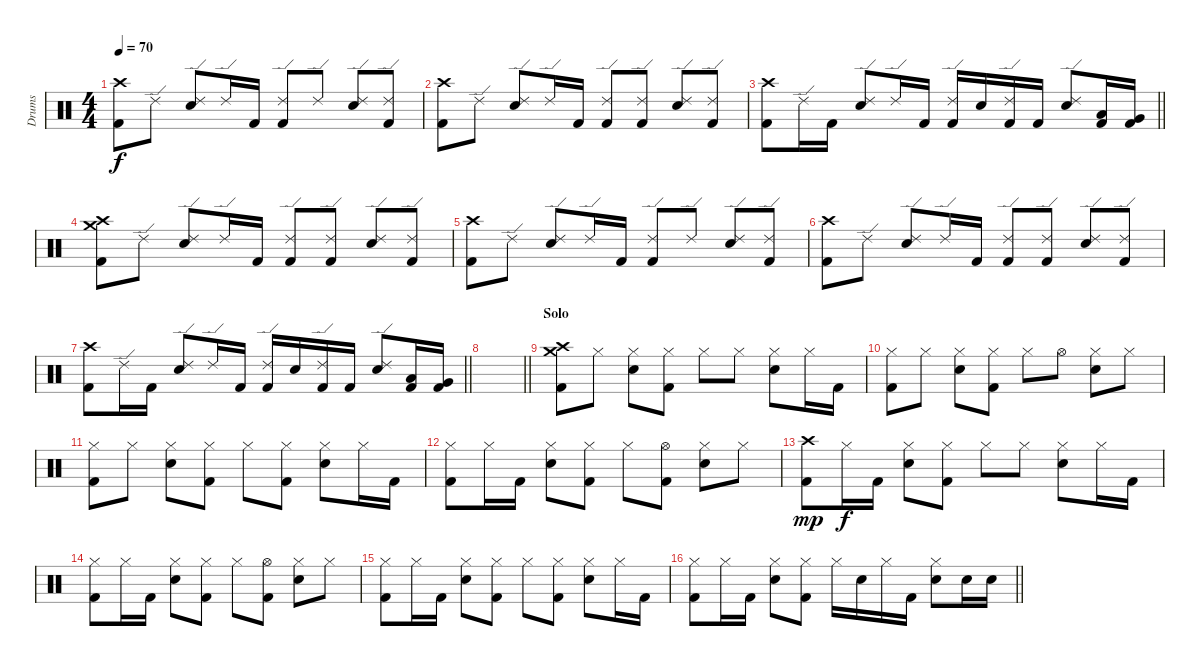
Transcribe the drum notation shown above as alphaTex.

\track ("Drums" "Drums") {instrument percussion}
\staff {score}
\articulation defaults
\ts (4 4)
\tempo 70
\clef neutral
\ks c
("Crash high (hit)" "Kick (hit) 2").8{dy f} "Ride (edge) 2".8 ("Ride (edge) 2" "Snare (hit) 2").8 "Ride (edge) 2".16 "Kick (hit) 2".16 ("Ride (edge) 2" "Kick (hit) 2").8 "Ride (edge) 2".8 ("Ride (edge) 2" "Snare (hit) 2").8 ("Ride (edge) 2" "Kick (hit) 2").8 |
("Crash high (hit)" "Kick (hit) 2").8 "Ride (edge) 2".8 ("Ride (edge) 2" "Snare (hit) 2").8 "Ride (edge) 2".16 "Kick (hit) 2".16 ("Ride (edge) 2" "Kick (hit) 2").8 ("Ride (edge) 2" "Kick (hit) 2").8 ("Ride (edge) 2" "Snare (hit) 2").8 ("Ride (edge) 2" "Kick (hit) 2").8 |
\barLineRight lightlight
("Crash high (hit)" "Kick (hit) 2").8 "Ride (edge) 2".16 "Kick (hit) 2".16 ("Ride (edge) 2" "Snare (hit) 2").8 "Ride (edge) 2".16 "Kick (hit) 2".16 ("Ride (edge) 2" "Kick (hit) 2").16 "Snare (hit) 2".16 ("Ride (edge) 2" "Kick (hit) 2").16 "Kick (hit) 2".16 ("Ride (edge) 2" "Snare (hit) 2").8 ("Low Tom (hit)" "Kick (hit) 2").16 ("Very Low Tom (hit)" "Kick (hit) 2").16 |
("Crash high (hit)" "Crash medium (hit)" "Kick (hit) 2").8 "Ride (edge) 2".8 ("Ride (edge) 2" "Snare (hit) 2").8 "Ride (edge) 2".16 "Kick (hit) 2".16 ("Ride (edge) 2" "Kick (hit) 2").8 ("Ride (edge) 2" "Kick (hit) 2").8 ("Ride (edge) 2" "Snare (hit) 2").8 ("Ride (edge) 2" "Kick (hit) 2").8 |
("Crash high (hit)" "Kick (hit) 2").8 "Ride (edge) 2".8 ("Ride (edge) 2" "Snare (hit) 2").8 "Ride (edge) 2".16 "Kick (hit) 2".16 ("Ride (edge) 2" "Kick (hit) 2").8 "Ride (edge) 2".8 ("Ride (edge) 2" "Snare (hit) 2").8 ("Ride (edge) 2" "Kick (hit) 2").8 |
("Crash high (hit)" "Kick (hit) 2").8 "Ride (edge) 2".8 ("Ride (edge) 2" "Snare (hit) 2").8 "Ride (edge) 2".16 "Kick (hit) 2".16 ("Ride (edge) 2" "Kick (hit) 2").8 ("Ride (edge) 2" "Kick (hit) 2").8 ("Ride (edge) 2" "Snare (hit) 2").8 ("Ride (edge) 2" "Kick (hit) 2").8 |
\barLineRight lightlight
("Crash high (hit)" "Kick (hit) 2").8 "Ride (edge) 2".16 "Kick (hit) 2".16 ("Ride (edge) 2" "Snare (hit) 2").8 "Ride (edge) 2".16 "Kick (hit) 2".16 ("Ride (edge) 2" "Kick (hit) 2").16 "Snare (hit) 2".16 ("Ride (edge) 2" "Kick (hit) 2").16 "Kick (hit) 2".16 ("Ride (edge) 2" "Snare (hit) 2").8 ("Low Tom (hit)" "Kick (hit) 2").16 ("Very Low Tom (hit)" "Kick (hit) 2").16 |
\barLineRight lightlight
|
\section ("" "Solo")
("Crash high (hit)" "Crash medium (hit)" "Kick (hit) 2").8 "Hi-Hat (closed)".8 ("Hi-Hat (closed)" "Snare (hit) 2").8 ("Hi-Hat (closed)" "Kick (hit) 2").8 "Hi-Hat (closed)".8 "Hi-Hat (closed)".8 ("Hi-Hat (closed)" "Snare (hit) 2").8 "Hi-Hat (closed)".16 "Kick (hit) 2".16 |
("Hi-Hat (closed)" "Kick (hit) 2").8 "Hi-Hat (closed)".8 ("Hi-Hat (closed)" "Snare (hit) 2").8 ("Hi-Hat (closed)" "Kick (hit) 2").8 "Hi-Hat (closed)".8 "Hi-Hat (open)".8 ("Hi-Hat (closed)" "Snare (hit) 2").8 "Hi-Hat (closed)".8 |
("Hi-Hat (closed)" "Kick (hit) 2").8 "Hi-Hat (closed)".8 ("Hi-Hat (closed)" "Snare (hit) 2").8 ("Hi-Hat (closed)" "Kick (hit) 2").8 "Hi-Hat (closed)".8 ("Hi-Hat (closed)" "Kick (hit) 2").8 ("Hi-Hat (closed)" "Snare (hit) 2").8 "Hi-Hat (closed)".16 "Kick (hit) 2".16 |
("Hi-Hat (closed)" "Kick (hit) 2").8 "Hi-Hat (closed)".16 "Kick (hit) 2".16 ("Hi-Hat (closed)" "Snare (hit) 2").8 ("Hi-Hat (closed)" "Kick (hit) 2").8 "Hi-Hat (closed)".8 ("Hi-Hat (open)" "Kick (hit) 2").8 ("Hi-Hat (closed)" "Snare (hit) 2").8 "Hi-Hat (closed)".8 |
("Crash high (hit)" "Kick (hit) 2").8{dy mp} "Hi-Hat (closed)".16{dy f} "Kick (hit) 2".16 ("Hi-Hat (closed)" "Snare (hit) 2").8 ("Hi-Hat (closed)" "Kick (hit) 2").8 "Hi-Hat (closed)".8 "Hi-Hat (closed)".8 ("Hi-Hat (closed)" "Snare (hit) 2").8 "Hi-Hat (closed)".16 "Kick (hit) 2".16 |
("Hi-Hat (closed)" "Kick (hit) 2").8 "Hi-Hat (closed)".16 "Kick (hit) 2".16 ("Hi-Hat (closed)" "Snare (hit) 2").8 ("Hi-Hat (closed)" "Kick (hit) 2").8 "Hi-Hat (closed)".8 ("Hi-Hat (open)" "Kick (hit) 2").8 ("Hi-Hat (closed)" "Snare (hit) 2").8 "Hi-Hat (closed)".8 |
("Hi-Hat (closed)" "Kick (hit) 2").8 "Hi-Hat (closed)".16 "Kick (hit) 2".16 ("Hi-Hat (closed)" "Snare (hit) 2").8 ("Hi-Hat (closed)" "Kick (hit) 2").8 "Hi-Hat (closed)".8 ("Hi-Hat (closed)" "Kick (hit) 2").8 ("Hi-Hat (closed)" "Snare (hit) 2").8 "Hi-Hat (closed)".16 "Kick (hit) 2".16 |
\barLineRight lightlight
("Hi-Hat (closed)" "Kick (hit) 2").8 "Hi-Hat (closed)".16 "Kick (hit) 2".16 ("Hi-Hat (closed)" "Snare (hit) 2").8 ("Hi-Hat (closed)" "Kick (hit) 2").8 "Hi-Hat (closed)".16 "Snare (hit) 2".16 "Hi-Hat (closed)".16 "Kick (hit) 2".16 ("Hi-Hat (closed)" "Snare (hit) 2").8 "Snare (hit) 2".16 "Snare (hit) 2".16
